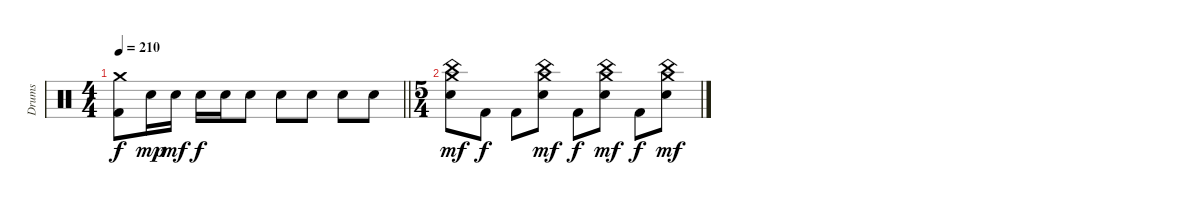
\track ("Drums" "Drums") {instrument percussion}
\staff {score}
\articulation defaults
\ts (4 4)
\tempo 210
\clef neutral
\barLineRight lightlight
\ks c
("Crash medium (hit)" "Kick (hit) 2").8{dy f} "Electric Snare (hit)".16{dy mp} "Electric Snare (hit)".16{dy mf} "Electric Snare (hit)".16{dy f} "Electric Snare (hit)".16 "Electric Snare (hit)".8 "Electric Snare (hit)".8 "Electric Snare (hit)".8 "Electric Snare (hit)".8 "Electric Snare (hit)".8 |
\ts (5 4)
("China (hit)" "Crash medium (hit)" "Electric Snare (hit)").8{dy mf} "Kick (hit) 2".8{dy f} "Kick (hit) 2".8 ("China (hit)" "Crash medium (hit)" "Electric Snare (hit)").8{dy mf} "Kick (hit) 2".8{dy f} ("China (hit)" "Crash medium (hit)" "Electric Snare (hit)").8{dy mf} "Kick (hit) 2".8{dy f} ("China (hit)" "Crash medium (hit)" "Electric Snare (hit)").8{dy mf}
